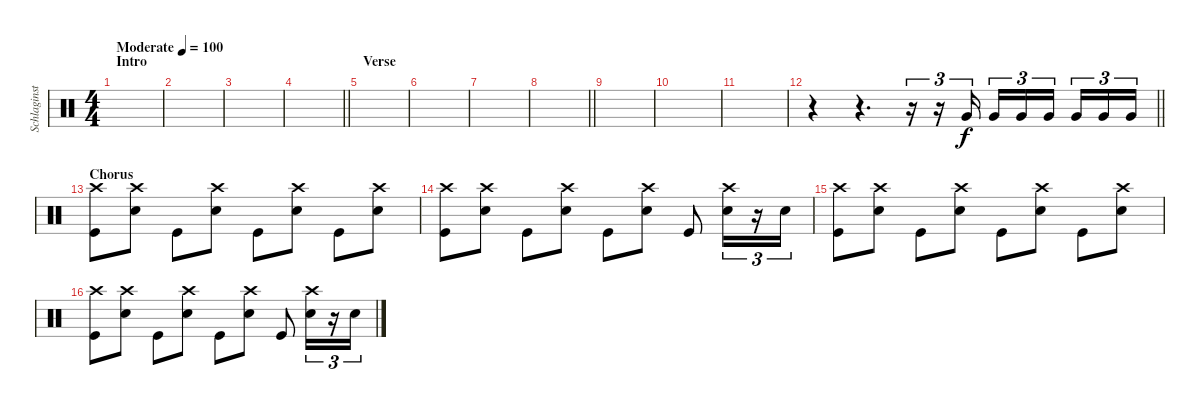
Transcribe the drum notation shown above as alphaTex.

\track ("Schlaginstrumente - Auswahl" "Schlaginst") {instrument percussion}
\staff {score}
\articulation defaults
\ts (4 4)
\section ("" "Intro")
\tempo (100 "Moderate")
\clef neutral
\ks c
|
|
|
\barLineRight lightlight
|
\section ("" "Verse")
|
|
|
\barLineRight lightlight
|
|
|
|
\barLineRight lightlight
r.4 r.4{d} r.16{tu (3 2)} r.16{tu (3 2)} "Very Low Tom (hit)".16{tu (3 2)} "Very Low Tom (hit)".16{tu (3 2)} "Very Low Tom (hit)".16{tu (3 2)} "Very Low Tom (hit)".16{tu (3 2) beam splitsecondary} "Very Low Tom (hit)".16{tu (3 2)} "Very Low Tom (hit)".16{tu (3 2)} "Very Low Tom (hit)".16{tu (3 2)} |
\section ("" "Chorus")
("Crash high (hit)" "Kick (hit)").8 ("Crash high (hit)" "Snare (hit) 2").8 "Kick (hit)".8 ("Crash high (hit)" "Snare (hit) 2").8 "Kick (hit)".8 ("Crash high (hit)" "Snare (hit) 2").8 "Kick (hit)".8 ("Crash high (hit)" "Snare (hit) 2").8 |
("Crash high (hit)" "Kick (hit)").8 ("Crash high (hit)" "Snare (hit) 2").8 "Kick (hit)".8 ("Crash high (hit)" "Snare (hit) 2").8 "Kick (hit)".8 ("Crash high (hit)" "Snare (hit) 2").8 "Kick (hit)".8 ("Crash high (hit)" "Snare (hit) 2").16{tu (3 2)} r.16{tu (3 2)} "Snare (hit) 2".16{tu (3 2)} |
("Crash high (hit)" "Kick (hit)").8 ("Crash high (hit)" "Snare (hit) 2").8 "Kick (hit)".8 ("Crash high (hit)" "Snare (hit) 2").8 "Kick (hit)".8 ("Crash high (hit)" "Snare (hit) 2").8 "Kick (hit)".8 ("Crash high (hit)" "Snare (hit) 2").8 |
("Crash high (hit)" "Kick (hit)").8 ("Crash high (hit)" "Snare (hit) 2").8 "Kick (hit)".8 ("Crash high (hit)" "Snare (hit) 2").8 "Kick (hit)".8 ("Crash high (hit)" "Snare (hit) 2").8 "Kick (hit)".8 ("Crash high (hit)" "Snare (hit) 2").16{tu (3 2)} r.16{tu (3 2)} "Snare (hit) 2".16{tu (3 2)}
